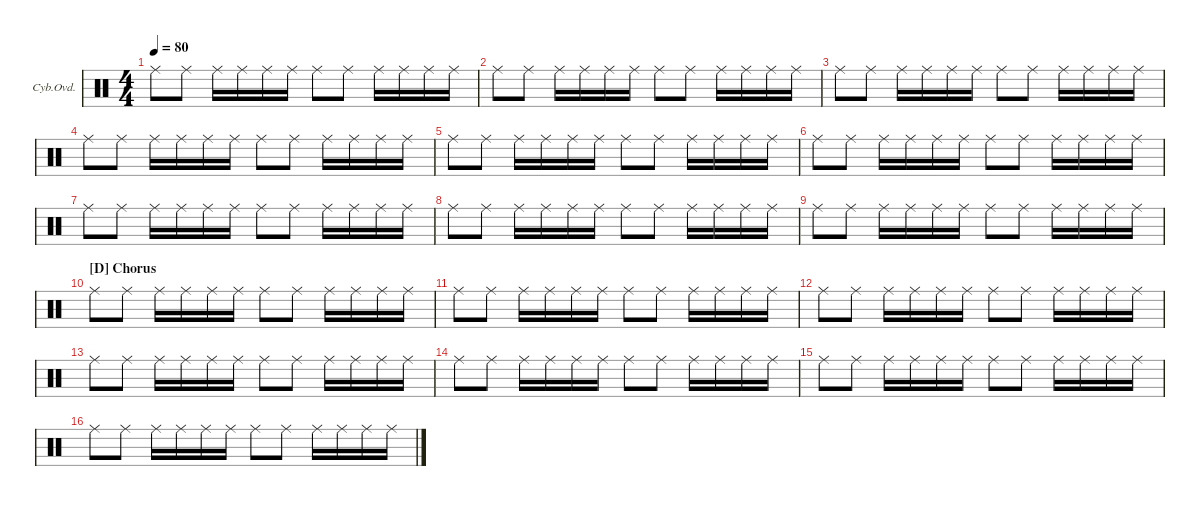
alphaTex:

\defaultSystemsLayout 4
\hideDynamics
\bracketExtendMode groupsimilarinstruments
\firstSystemTrackNameOrientation horizontal
\otherSystemsTrackNameOrientation horizontal
\track ("Cymbal Overdub" "Cyb.Ovd.") {multiBarRest instrument percussion}
\staff {score}
\articulation defaults
\ts (4 4)
\tempo 80
\clef neutral
\ks c "Ride (middle)".8{dy p} "Ride (middle)".8 "Ride (middle)".16 "Ride (middle)".16 "Ride (middle)".16 "Ride (middle)".16 "Ride (middle)".8 "Ride (middle)".8 "Ride (middle)".16 "Ride (middle)".16 "Ride (middle)".16 "Ride (middle)".16
|
"Ride (middle)".8 "Ride (middle)".8 "Ride (middle)".16 "Ride (middle)".16 "Ride (middle)".16 "Ride (middle)".16 "Ride (middle)".8 "Ride (middle)".8 "Ride (middle)".16 "Ride (middle)".16 "Ride (middle)".16 "Ride (middle)".16 |
"Ride (middle)".8 "Ride (middle)".8 "Ride (middle)".16 "Ride (middle)".16 "Ride (middle)".16 "Ride (middle)".16 "Ride (middle)".8 "Ride (middle)".8 "Ride (middle)".16 "Ride (middle)".16 "Ride (middle)".16 "Ride (middle)".16 |
"Ride (middle)".8 "Ride (middle)".8 "Ride (middle)".16 "Ride (middle)".16 "Ride (middle)".16 "Ride (middle)".16 "Ride (middle)".8 "Ride (middle)".8 "Ride (middle)".16 "Ride (middle)".16 "Ride (middle)".16 "Ride (middle)".16 |
"Ride (middle)".8 "Ride (middle)".8 "Ride (middle)".16 "Ride (middle)".16 "Ride (middle)".16 "Ride (middle)".16 "Ride (middle)".8 "Ride (middle)".8 "Ride (middle)".16 "Ride (middle)".16 "Ride (middle)".16 "Ride (middle)".16 |
"Ride (middle)".8 "Ride (middle)".8 "Ride (middle)".16 "Ride (middle)".16 "Ride (middle)".16 "Ride (middle)".16 "Ride (middle)".8 "Ride (middle)".8 "Ride (middle)".16 "Ride (middle)".16 "Ride (middle)".16 "Ride (middle)".16 |
"Ride (middle)".8 "Ride (middle)".8 "Ride (middle)".16 "Ride (middle)".16 "Ride (middle)".16 "Ride (middle)".16 "Ride (middle)".8 "Ride (middle)".8 "Ride (middle)".16 "Ride (middle)".16 "Ride (middle)".16 "Ride (middle)".16 |
"Ride (middle)".8 "Ride (middle)".8 "Ride (middle)".16 "Ride (middle)".16 "Ride (middle)".16 "Ride (middle)".16 "Ride (middle)".8 "Ride (middle)".8 "Ride (middle)".16 "Ride (middle)".16 "Ride (middle)".16 "Ride (middle)".16 |
"Ride (middle)".8 "Ride (middle)".8 "Ride (middle)".16 "Ride (middle)".16 "Ride (middle)".16 "Ride (middle)".16 "Ride (middle)".8 "Ride (middle)".8 "Ride (middle)".16 "Ride (middle)".16 "Ride (middle)".16 "Ride (middle)".16 |
\section ("D" "Chorus")
"Ride (middle)".8 "Ride (middle)".8 "Ride (middle)".16 "Ride (middle)".16 "Ride (middle)".16 "Ride (middle)".16 "Ride (middle)".8 "Ride (middle)".8 "Ride (middle)".16 "Ride (middle)".16 "Ride (middle)".16 "Ride (middle)".16 |
"Ride (middle)".8 "Ride (middle)".8 "Ride (middle)".16 "Ride (middle)".16 "Ride (middle)".16 "Ride (middle)".16 "Ride (middle)".8 "Ride (middle)".8 "Ride (middle)".16 "Ride (middle)".16 "Ride (middle)".16 "Ride (middle)".16 |
"Ride (middle)".8 "Ride (middle)".8 "Ride (middle)".16 "Ride (middle)".16 "Ride (middle)".16 "Ride (middle)".16 "Ride (middle)".8 "Ride (middle)".8 "Ride (middle)".16 "Ride (middle)".16 "Ride (middle)".16 "Ride (middle)".16 |
"Ride (middle)".8 "Ride (middle)".8 "Ride (middle)".16 "Ride (middle)".16 "Ride (middle)".16 "Ride (middle)".16 "Ride (middle)".8 "Ride (middle)".8 "Ride (middle)".16 "Ride (middle)".16 "Ride (middle)".16 "Ride (middle)".16 |
"Ride (middle)".8 "Ride (middle)".8 "Ride (middle)".16 "Ride (middle)".16 "Ride (middle)".16 "Ride (middle)".16 "Ride (middle)".8 "Ride (middle)".8 "Ride (middle)".16 "Ride (middle)".16 "Ride (middle)".16 "Ride (middle)".16 |
"Ride (middle)".8 "Ride (middle)".8 "Ride (middle)".16 "Ride (middle)".16 "Ride (middle)".16 "Ride (middle)".16 "Ride (middle)".8 "Ride (middle)".8 "Ride (middle)".16 "Ride (middle)".16 "Ride (middle)".16 "Ride (middle)".16 |
"Ride (middle)".8 "Ride (middle)".8 "Ride (middle)".16 "Ride (middle)".16 "Ride (middle)".16 "Ride (middle)".16 "Ride (middle)".8 "Ride (middle)".8 "Ride (middle)".16 "Ride (middle)".16 "Ride (middle)".16 "Ride (middle)".16
